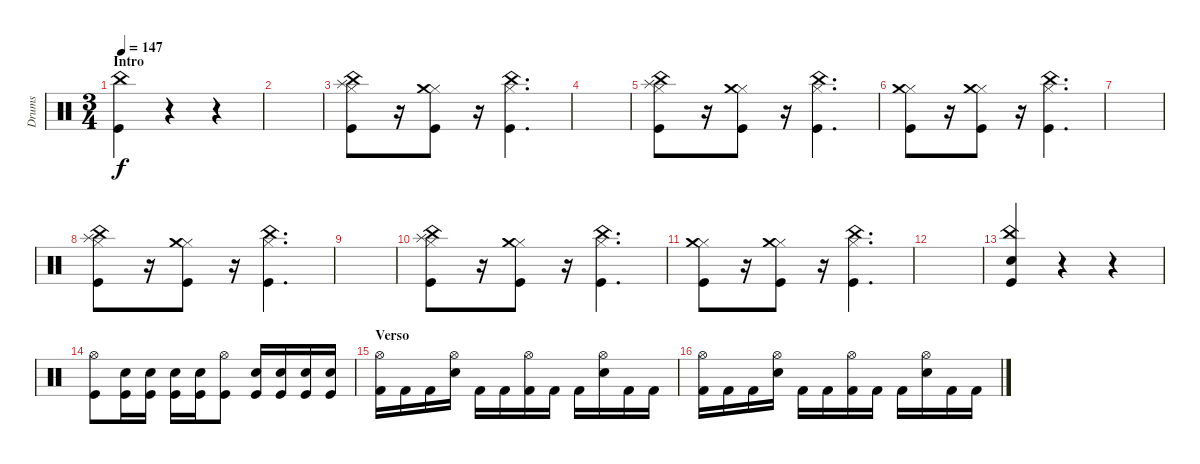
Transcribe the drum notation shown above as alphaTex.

\track ("Drums" "Drums") {instrument percussion}
\staff {score}
\articulation defaults
\ts (3 4)
\section ("" "Intro")
\tempo 147
\clef neutral
\ks c
("Kick (hit)" "China (hit)").4{dy f} r.4 r.4 |
|
("Hi-Hat (closed)" "Splash (hit)" "Kick (hit)" "China (hit)").8 r.16 ("Hi-Hat (closed)" "Crash medium (hit)" "Kick (hit)").8 r.16 ("Hi-Hat (closed)" "China (hit)" "Kick (hit)").4{d} |
|
("Hi-Hat (closed)" "Splash (hit)" "Kick (hit)" "China (hit)").8 r.16 ("Hi-Hat (closed)" "Crash medium (hit)" "Kick (hit)").8 r.16 ("Hi-Hat (closed)" "China (hit)" "Kick (hit)").4{d} |
("Hi-Hat (closed)" "Crash medium (hit)" "Kick (hit)").8 r.16 ("Hi-Hat (closed)" "Crash medium (hit)" "Kick (hit)").8 r.16 ("Hi-Hat (closed)" "China (hit)" "Kick (hit)").4{d} |
|
("Hi-Hat (closed)" "Splash (hit)" "Kick (hit)" "China (hit)").8 r.16 ("Hi-Hat (closed)" "Crash medium (hit)" "Kick (hit)").8 r.16 ("Hi-Hat (closed)" "China (hit)" "Kick (hit)").4{d} |
|
("Hi-Hat (closed)" "Splash (hit)" "Kick (hit)" "China (hit)").8 r.16 ("Hi-Hat (closed)" "Crash medium (hit)" "Kick (hit)").8 r.16 ("Hi-Hat (closed)" "China (hit)" "Kick (hit)").4{d} |
("Hi-Hat (closed)" "Crash medium (hit)" "Kick (hit)").8 r.16 ("Hi-Hat (closed)" "Crash medium (hit)" "Kick (hit)").8 r.16 ("Hi-Hat (closed)" "China (hit)" "Kick (hit)").4{d} |
|
("Kick (hit)" "China (hit)" "Snare (hit) 2").4 r.4 r.4 |
("Hi-Hat (open)" "Kick (hit)").8 ("Snare (hit) 2" "Kick (hit)").16 ("Snare (hit) 2" "Kick (hit)").16 ("Snare (hit) 2" "Kick (hit)").16 ("Snare (hit) 2" "Kick (hit)").16 ("Hi-Hat (open)" "Kick (hit)").8 ("Snare (hit) 2" "Kick (hit)").16 ("Snare (hit) 2" "Kick (hit)").16 ("Snare (hit) 2" "Kick (hit)").16 ("Snare (hit) 2" "Kick (hit)").16 |
\section ("" "Verso")
("Kick (hit) 2" "Hi-Hat (open)").16 "Kick (hit) 2".16 "Kick (hit) 2".16 ("Snare (hit) 2" "Hi-Hat (open)").16 "Kick (hit) 2".16 "Kick (hit) 2".16 ("Kick (hit) 2" "Hi-Hat (open)").16 "Kick (hit) 2".16 "Kick (hit) 2".16 ("Snare (hit) 2" "Hi-Hat (open)").16 "Kick (hit) 2".16 "Kick (hit) 2".16 |
("Kick (hit) 2" "Hi-Hat (open)").16 "Kick (hit) 2".16 "Kick (hit) 2".16 ("Snare (hit) 2" "Hi-Hat (open)").16 "Kick (hit) 2".16 "Kick (hit) 2".16 ("Kick (hit) 2" "Hi-Hat (open)").16 "Kick (hit) 2".16 "Kick (hit) 2".16 ("Snare (hit) 2" "Hi-Hat (open)").16 "Kick (hit) 2".16 "Kick (hit) 2".16
